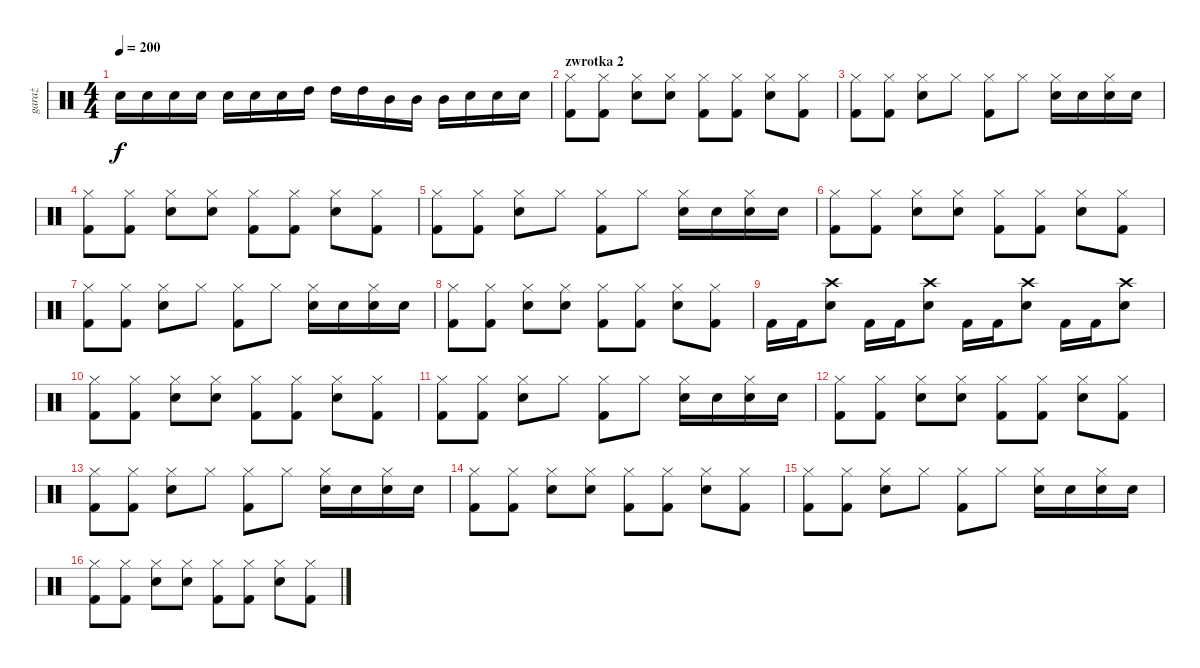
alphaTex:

\track ("garaż" "garaż") {instrument percussion}
\staff {score}
\articulation defaults
\ts (4 4)
\tempo 200
\clef neutral
\ks c "Snare (hit) 2".16{dy f} "Snare (hit) 2".16 "Snare (hit) 2".16 "Snare (hit) 2".16 "Snare (hit) 2".16 "Snare (hit) 2".16 "Snare (hit) 2".16 "High Tom (hit)".16 "High Tom (hit)".16 "High Tom (hit)".16 "Mid Tom (hit)".16 "Mid Tom (hit)".16 "Mid Tom (hit)".16 "Snare (hit) 2".16 "Snare (hit) 2".16 "Snare (hit) 2".16
|
\section ("" "zwrotka 2")
("Hi-Hat (closed)" "Kick (hit) 2").8 ("Hi-Hat (closed)" "Kick (hit) 2").8 ("Hi-Hat (closed)" "Snare (hit) 2").8 ("Hi-Hat (closed)" "Snare (hit) 2").8 ("Hi-Hat (closed)" "Kick (hit) 2").8 ("Hi-Hat (closed)" "Kick (hit) 2").8 ("Hi-Hat (closed)" "Snare (hit) 2").8 ("Hi-Hat (closed)" "Kick (hit) 2").8 |
("Hi-Hat (closed)" "Kick (hit) 2").8 ("Hi-Hat (closed)" "Kick (hit) 2").8 ("Hi-Hat (closed)" "Snare (hit) 2").8 "Hi-Hat (closed)".8 ("Hi-Hat (closed)" "Kick (hit) 2").8 "Hi-Hat (closed)".8 ("Hi-Hat (closed)" "Snare (hit) 2").16 "Snare (hit) 2".16 ("Hi-Hat (closed)" "Snare (hit) 2").16 "Snare (hit) 2".16 |
("Hi-Hat (closed)" "Kick (hit) 2").8 ("Hi-Hat (closed)" "Kick (hit) 2").8 ("Hi-Hat (closed)" "Snare (hit) 2").8 ("Hi-Hat (closed)" "Snare (hit) 2").8 ("Hi-Hat (closed)" "Kick (hit) 2").8 ("Hi-Hat (closed)" "Kick (hit) 2").8 ("Hi-Hat (closed)" "Snare (hit) 2").8 ("Hi-Hat (closed)" "Kick (hit) 2").8 |
("Hi-Hat (closed)" "Kick (hit) 2").8 ("Hi-Hat (closed)" "Kick (hit) 2").8 ("Hi-Hat (closed)" "Snare (hit) 2").8 "Hi-Hat (closed)".8 ("Hi-Hat (closed)" "Kick (hit) 2").8 "Hi-Hat (closed)".8 ("Hi-Hat (closed)" "Snare (hit) 2").16 "Snare (hit) 2".16 ("Hi-Hat (closed)" "Snare (hit) 2").16 "Snare (hit) 2".16 |
("Hi-Hat (closed)" "Kick (hit) 2").8 ("Hi-Hat (closed)" "Kick (hit) 2").8 ("Hi-Hat (closed)" "Snare (hit) 2").8 ("Hi-Hat (closed)" "Snare (hit) 2").8 ("Hi-Hat (closed)" "Kick (hit) 2").8 ("Hi-Hat (closed)" "Kick (hit) 2").8 ("Hi-Hat (closed)" "Snare (hit) 2").8 ("Hi-Hat (closed)" "Kick (hit) 2").8 |
("Hi-Hat (closed)" "Kick (hit) 2").8 ("Hi-Hat (closed)" "Kick (hit) 2").8 ("Hi-Hat (closed)" "Snare (hit) 2").8 "Hi-Hat (closed)".8 ("Hi-Hat (closed)" "Kick (hit) 2").8 "Hi-Hat (closed)".8 ("Hi-Hat (closed)" "Snare (hit) 2").16 "Snare (hit) 2".16 ("Hi-Hat (closed)" "Snare (hit) 2").16 "Snare (hit) 2".16 |
("Hi-Hat (closed)" "Kick (hit) 2").8 ("Hi-Hat (closed)" "Kick (hit) 2").8 ("Hi-Hat (closed)" "Snare (hit) 2").8 ("Hi-Hat (closed)" "Snare (hit) 2").8 ("Hi-Hat (closed)" "Kick (hit) 2").8 ("Hi-Hat (closed)" "Kick (hit) 2").8 ("Hi-Hat (closed)" "Snare (hit) 2").8 ("Hi-Hat (closed)" "Kick (hit) 2").8 |
"Kick (hit) 2".16 "Kick (hit) 2".16 ("Crash high (hit)" "Snare (hit) 2").8 "Kick (hit) 2".16 "Kick (hit) 2".16 ("Crash high (hit)" "Snare (hit) 2").8 "Kick (hit) 2".16 "Kick (hit) 2".16 ("Crash high (hit)" "Snare (hit) 2").8 "Kick (hit) 2".16 "Kick (hit) 2".16 ("Crash high (hit)" "Snare (hit) 2").8 |
("Hi-Hat (closed)" "Kick (hit) 2").8 ("Hi-Hat (closed)" "Kick (hit) 2").8 ("Hi-Hat (closed)" "Snare (hit) 2").8 ("Hi-Hat (closed)" "Snare (hit) 2").8 ("Hi-Hat (closed)" "Kick (hit) 2").8 ("Hi-Hat (closed)" "Kick (hit) 2").8 ("Hi-Hat (closed)" "Snare (hit) 2").8 ("Hi-Hat (closed)" "Kick (hit) 2").8 |
("Hi-Hat (closed)" "Kick (hit) 2").8 ("Hi-Hat (closed)" "Kick (hit) 2").8 ("Hi-Hat (closed)" "Snare (hit) 2").8 "Hi-Hat (closed)".8 ("Hi-Hat (closed)" "Kick (hit) 2").8 "Hi-Hat (closed)".8 ("Hi-Hat (closed)" "Snare (hit) 2").16 "Snare (hit) 2".16 ("Hi-Hat (closed)" "Snare (hit) 2").16 "Snare (hit) 2".16 |
("Hi-Hat (closed)" "Kick (hit) 2").8 ("Hi-Hat (closed)" "Kick (hit) 2").8 ("Hi-Hat (closed)" "Snare (hit) 2").8 ("Hi-Hat (closed)" "Snare (hit) 2").8 ("Hi-Hat (closed)" "Kick (hit) 2").8 ("Hi-Hat (closed)" "Kick (hit) 2").8 ("Hi-Hat (closed)" "Snare (hit) 2").8 ("Hi-Hat (closed)" "Kick (hit) 2").8 |
("Hi-Hat (closed)" "Kick (hit) 2").8 ("Hi-Hat (closed)" "Kick (hit) 2").8 ("Hi-Hat (closed)" "Snare (hit) 2").8 "Hi-Hat (closed)".8 ("Hi-Hat (closed)" "Kick (hit) 2").8 "Hi-Hat (closed)".8 ("Hi-Hat (closed)" "Snare (hit) 2").16 "Snare (hit) 2".16 ("Hi-Hat (closed)" "Snare (hit) 2").16 "Snare (hit) 2".16 |
("Hi-Hat (closed)" "Kick (hit) 2").8 ("Hi-Hat (closed)" "Kick (hit) 2").8 ("Hi-Hat (closed)" "Snare (hit) 2").8 ("Hi-Hat (closed)" "Snare (hit) 2").8 ("Hi-Hat (closed)" "Kick (hit) 2").8 ("Hi-Hat (closed)" "Kick (hit) 2").8 ("Hi-Hat (closed)" "Snare (hit) 2").8 ("Hi-Hat (closed)" "Kick (hit) 2").8 |
("Hi-Hat (closed)" "Kick (hit) 2").8 ("Hi-Hat (closed)" "Kick (hit) 2").8 ("Hi-Hat (closed)" "Snare (hit) 2").8 "Hi-Hat (closed)".8 ("Hi-Hat (closed)" "Kick (hit) 2").8 "Hi-Hat (closed)".8 ("Hi-Hat (closed)" "Snare (hit) 2").16 "Snare (hit) 2".16 ("Hi-Hat (closed)" "Snare (hit) 2").16 "Snare (hit) 2".16 |
("Hi-Hat (closed)" "Kick (hit) 2").8 ("Hi-Hat (closed)" "Kick (hit) 2").8 ("Hi-Hat (closed)" "Snare (hit) 2").8 ("Hi-Hat (closed)" "Snare (hit) 2").8 ("Hi-Hat (closed)" "Kick (hit) 2").8 ("Hi-Hat (closed)" "Kick (hit) 2").8 ("Hi-Hat (closed)" "Snare (hit) 2").8 ("Hi-Hat (closed)" "Kick (hit) 2").8
